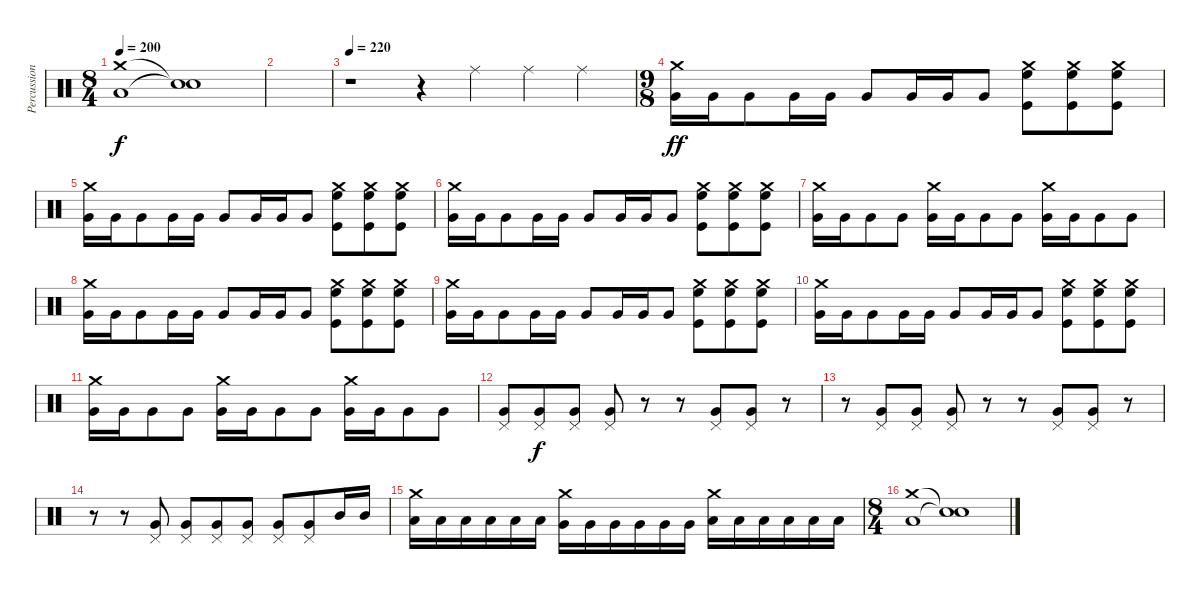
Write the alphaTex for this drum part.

\track ("Percussion" "Percussion") {instrument percussion}
\staff {score}
\articulation defaults
\ts (8 4)
\tempo 200
\clef neutral
\ks c
("Crash medium (hit)" "Low Floor Tom (hit)").1{dy f} ("Snare (hit)"{t} "Snare (hit)"{t}).1 |
|
\tempo 220
r.1 r.4 "Ride (middle)".4 "Ride (middle)".4 "Ride (middle)".4 |
\ts (9 8)
("Crash medium (hit)" "Very Low Tom (hit)").16{dy ff} "Very Low Tom (hit)".16 "Very Low Tom (hit)".8 "Very Low Tom (hit)".16 "Very Low Tom (hit)".16 "Very Low Tom (hit)".8 "Very Low Tom (hit)".16 "Very Low Tom (hit)".16 "Very Low Tom (hit)".8 ("Crash medium (hit)" "High Floor Tom (hit)" "Kick (hit)").8 ("Crash medium (hit)" "High Floor Tom (hit)" "Kick (hit)").8 ("Crash medium (hit)" "High Floor Tom (hit)" "Kick (hit)").8 |
("Crash medium (hit)" "Very Low Tom (hit)").16 "Very Low Tom (hit)".16 "Very Low Tom (hit)".8 "Very Low Tom (hit)".16 "Very Low Tom (hit)".16 "Very Low Tom (hit)".8 "Very Low Tom (hit)".16 "Very Low Tom (hit)".16 "Very Low Tom (hit)".8 ("Crash medium (hit)" "High Floor Tom (hit)" "Kick (hit)").8 ("Crash medium (hit)" "High Floor Tom (hit)" "Kick (hit)").8 ("Crash medium (hit)" "High Floor Tom (hit)" "Kick (hit)").8 |
("Crash medium (hit)" "Very Low Tom (hit)").16 "Very Low Tom (hit)".16 "Very Low Tom (hit)".8 "Very Low Tom (hit)".16 "Very Low Tom (hit)".16 "Very Low Tom (hit)".8 "Very Low Tom (hit)".16 "Very Low Tom (hit)".16 "Very Low Tom (hit)".8 ("Crash medium (hit)" "High Floor Tom (hit)" "Kick (hit)").8 ("Crash medium (hit)" "High Floor Tom (hit)" "Kick (hit)").8 ("Crash medium (hit)" "High Floor Tom (hit)" "Kick (hit)").8 |
("Crash medium (hit)" "Very Low Tom (hit)").16 "Very Low Tom (hit)".16 "Very Low Tom (hit)".8 "Very Low Tom (hit)".8 ("Crash medium (hit)" "Very Low Tom (hit)").16 "Very Low Tom (hit)".16 "Very Low Tom (hit)".8 "Very Low Tom (hit)".8 ("Crash medium (hit)" "Very Low Tom (hit)").16 "Very Low Tom (hit)".16 "Very Low Tom (hit)".8 "Very Low Tom (hit)".8 |
("Crash medium (hit)" "Very Low Tom (hit)").16 "Very Low Tom (hit)".16 "Very Low Tom (hit)".8 "Very Low Tom (hit)".16 "Very Low Tom (hit)".16 "Very Low Tom (hit)".8 "Very Low Tom (hit)".16 "Very Low Tom (hit)".16 "Very Low Tom (hit)".8 ("Crash medium (hit)" "High Floor Tom (hit)" "Kick (hit)").8 ("Crash medium (hit)" "High Floor Tom (hit)" "Kick (hit)").8 ("Crash medium (hit)" "High Floor Tom (hit)" "Kick (hit)").8 |
("Crash medium (hit)" "Very Low Tom (hit)").16 "Very Low Tom (hit)".16 "Very Low Tom (hit)".8 "Very Low Tom (hit)".16 "Very Low Tom (hit)".16 "Very Low Tom (hit)".8 "Very Low Tom (hit)".16 "Very Low Tom (hit)".16 "Very Low Tom (hit)".8 ("Crash medium (hit)" "High Floor Tom (hit)" "Kick (hit)").8 ("Crash medium (hit)" "High Floor Tom (hit)" "Kick (hit)").8 ("Crash medium (hit)" "High Floor Tom (hit)" "Kick (hit)").8 |
("Crash medium (hit)" "Very Low Tom (hit)").16 "Very Low Tom (hit)".16 "Very Low Tom (hit)".8 "Very Low Tom (hit)".16 "Very Low Tom (hit)".16 "Very Low Tom (hit)".8 "Very Low Tom (hit)".16 "Very Low Tom (hit)".16 "Very Low Tom (hit)".8 ("Crash medium (hit)" "High Floor Tom (hit)" "Kick (hit)").8 ("Crash medium (hit)" "High Floor Tom (hit)" "Kick (hit)").8 ("Crash medium (hit)" "High Floor Tom (hit)" "Kick (hit)").8 |
("Crash medium (hit)" "Very Low Tom (hit)").16 "Very Low Tom (hit)".16 "Very Low Tom (hit)".8 "Very Low Tom (hit)".8 ("Crash medium (hit)" "Very Low Tom (hit)").16 "Very Low Tom (hit)".16 "Very Low Tom (hit)".8 "Very Low Tom (hit)".8 ("Crash medium (hit)" "Very Low Tom (hit)").16 "Very Low Tom (hit)".16 "Very Low Tom (hit)".8 "Very Low Tom (hit)".8 |
("Pedal Hi-Hat (hit)" "Very Low Tom (hit)").8 ("Pedal Hi-Hat (hit)" "Very Low Tom (hit)").8{dy f} ("Pedal Hi-Hat (hit)" "Very Low Tom (hit)").8 ("Pedal Hi-Hat (hit)" "Very Low Tom (hit)").8 r.8 r.8 ("Pedal Hi-Hat (hit)" "Very Low Tom (hit)").8 ("Pedal Hi-Hat (hit)" "Very Low Tom (hit)").8 r.8 |
r.8 ("Pedal Hi-Hat (hit)" "Very Low Tom (hit)").8 ("Pedal Hi-Hat (hit)" "Very Low Tom (hit)").8 ("Pedal Hi-Hat (hit)" "Very Low Tom (hit)").8 r.8 r.8 ("Pedal Hi-Hat (hit)" "Very Low Tom (hit)").8 ("Pedal Hi-Hat (hit)" "Very Low Tom (hit)").8 r.8 |
r.8 r.8 ("Pedal Hi-Hat (hit)" "Very Low Tom (hit)").8 ("Pedal Hi-Hat (hit)" "Very Low Tom (hit)").8 ("Pedal Hi-Hat (hit)" "Very Low Tom (hit)").8 ("Pedal Hi-Hat (hit)" "Very Low Tom (hit)").8 ("Pedal Hi-Hat (hit)" "Very Low Tom (hit)").8 ("Pedal Hi-Hat (hit)" "Very Low Tom (hit)").8 "Mid Tom (hit)".16 "Mid Tom (hit)".16 |
("Crash medium (hit)" "Low Tom (hit)").16 "Low Tom (hit)".16 "Low Tom (hit)".16 "Low Tom (hit)".16 "Low Tom (hit)".16 "Low Tom (hit)".16 ("Crash medium (hit)" "Very Low Tom (hit)").16 "Very Low Tom (hit)".16 "Very Low Tom (hit)".16 "Very Low Tom (hit)".16 "Very Low Tom (hit)".16 "Very Low Tom (hit)".16 ("Crash medium (hit)" "Low Floor Tom (hit)").16 "Low Floor Tom (hit)".16 "Low Floor Tom (hit)".16 "Low Floor Tom (hit)".16 "Low Floor Tom (hit)".16 "Low Floor Tom (hit)".16 |
\ts (8 4)
("Crash medium (hit)" "Low Floor Tom (hit)").1 ("Snare (hit)"{t} "Snare (hit)"{t}).1
